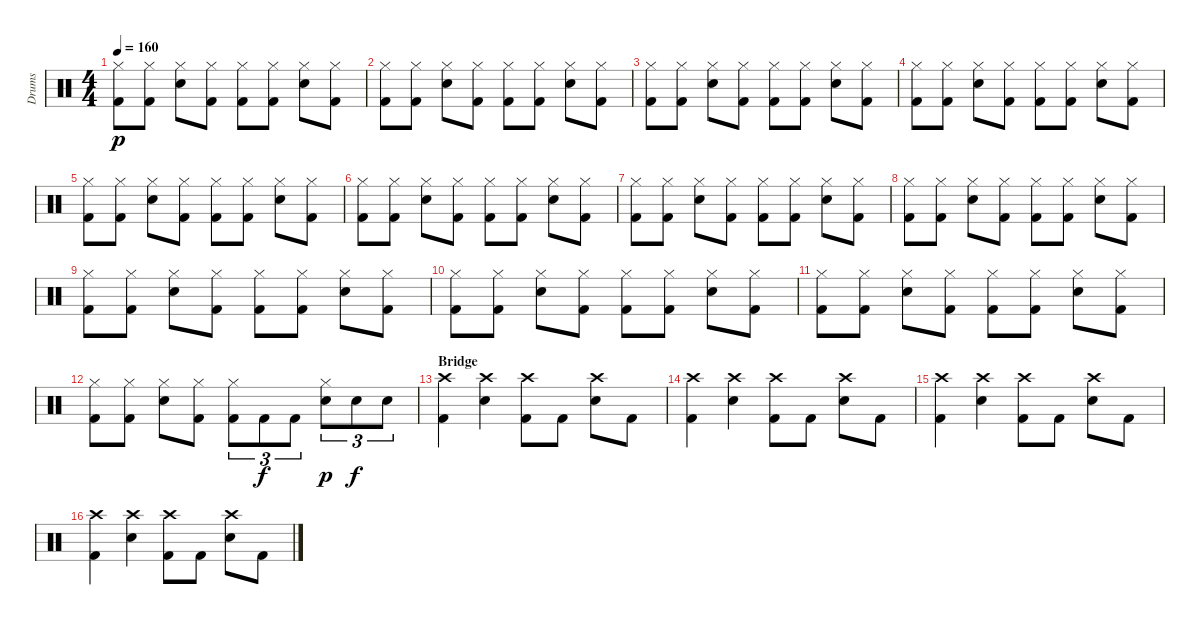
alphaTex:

\track ("Drums" "Drums") {instrument percussion}
\staff {score}
\articulation defaults
\ts (4 4)
\tempo 160
\clef neutral
\ks c
("Hi-Hat (closed)" "Kick (hit) 2").8{dy p} ("Hi-Hat (closed)" "Kick (hit) 2").8 ("Hi-Hat (closed)" "Snare (hit) 2").8 ("Hi-Hat (closed)" "Kick (hit) 2").8 ("Hi-Hat (closed)" "Kick (hit) 2").8 ("Hi-Hat (closed)" "Kick (hit) 2").8 ("Hi-Hat (closed)" "Snare (hit) 2").8 ("Hi-Hat (closed)" "Kick (hit) 2").8 |
("Hi-Hat (closed)" "Kick (hit) 2").8 ("Hi-Hat (closed)" "Kick (hit) 2").8 ("Hi-Hat (closed)" "Snare (hit) 2").8 ("Hi-Hat (closed)" "Kick (hit) 2").8 ("Hi-Hat (closed)" "Kick (hit) 2").8 ("Hi-Hat (closed)" "Kick (hit) 2").8 ("Hi-Hat (closed)" "Snare (hit) 2").8 ("Hi-Hat (closed)" "Kick (hit) 2").8 |
("Hi-Hat (closed)" "Kick (hit) 2").8 ("Hi-Hat (closed)" "Kick (hit) 2").8 ("Hi-Hat (closed)" "Snare (hit) 2").8 ("Hi-Hat (closed)" "Kick (hit) 2").8 ("Hi-Hat (closed)" "Kick (hit) 2").8 ("Hi-Hat (closed)" "Kick (hit) 2").8 ("Hi-Hat (closed)" "Snare (hit) 2").8 ("Hi-Hat (closed)" "Kick (hit) 2").8 |
("Hi-Hat (closed)" "Kick (hit) 2").8 ("Hi-Hat (closed)" "Kick (hit) 2").8 ("Hi-Hat (closed)" "Snare (hit) 2").8 ("Hi-Hat (closed)" "Kick (hit) 2").8 ("Hi-Hat (closed)" "Kick (hit) 2").8 ("Hi-Hat (closed)" "Kick (hit) 2").8 ("Hi-Hat (closed)" "Snare (hit) 2").8 ("Hi-Hat (closed)" "Kick (hit) 2").8 |
("Hi-Hat (closed)" "Kick (hit) 2").8 ("Hi-Hat (closed)" "Kick (hit) 2").8 ("Hi-Hat (closed)" "Snare (hit) 2").8 ("Hi-Hat (closed)" "Kick (hit) 2").8 ("Hi-Hat (closed)" "Kick (hit) 2").8 ("Hi-Hat (closed)" "Kick (hit) 2").8 ("Hi-Hat (closed)" "Snare (hit) 2").8 ("Hi-Hat (closed)" "Kick (hit) 2").8 |
("Hi-Hat (closed)" "Kick (hit) 2").8 ("Hi-Hat (closed)" "Kick (hit) 2").8 ("Hi-Hat (closed)" "Snare (hit) 2").8 ("Hi-Hat (closed)" "Kick (hit) 2").8 ("Hi-Hat (closed)" "Kick (hit) 2").8 ("Hi-Hat (closed)" "Kick (hit) 2").8 ("Hi-Hat (closed)" "Snare (hit) 2").8 ("Hi-Hat (closed)" "Kick (hit) 2").8 |
("Hi-Hat (closed)" "Kick (hit) 2").8 ("Hi-Hat (closed)" "Kick (hit) 2").8 ("Hi-Hat (closed)" "Snare (hit) 2").8 ("Hi-Hat (closed)" "Kick (hit) 2").8 ("Hi-Hat (closed)" "Kick (hit) 2").8 ("Hi-Hat (closed)" "Kick (hit) 2").8 ("Hi-Hat (closed)" "Snare (hit) 2").8 ("Hi-Hat (closed)" "Kick (hit) 2").8 |
("Hi-Hat (closed)" "Kick (hit) 2").8 ("Hi-Hat (closed)" "Kick (hit) 2").8 ("Hi-Hat (closed)" "Snare (hit) 2").8 ("Hi-Hat (closed)" "Kick (hit) 2").8 ("Hi-Hat (closed)" "Kick (hit) 2").8 ("Hi-Hat (closed)" "Kick (hit) 2").8 ("Hi-Hat (closed)" "Snare (hit) 2").8 ("Hi-Hat (closed)" "Kick (hit) 2").8 |
("Hi-Hat (closed)" "Kick (hit) 2").8 ("Hi-Hat (closed)" "Kick (hit) 2").8 ("Hi-Hat (closed)" "Snare (hit) 2").8 ("Hi-Hat (closed)" "Kick (hit) 2").8 ("Hi-Hat (closed)" "Kick (hit) 2").8 ("Hi-Hat (closed)" "Kick (hit) 2").8 ("Hi-Hat (closed)" "Snare (hit) 2").8 ("Hi-Hat (closed)" "Kick (hit) 2").8 |
("Hi-Hat (closed)" "Kick (hit) 2").8 ("Hi-Hat (closed)" "Kick (hit) 2").8 ("Hi-Hat (closed)" "Snare (hit) 2").8 ("Hi-Hat (closed)" "Kick (hit) 2").8 ("Hi-Hat (closed)" "Kick (hit) 2").8 ("Hi-Hat (closed)" "Kick (hit) 2").8 ("Hi-Hat (closed)" "Snare (hit) 2").8 ("Hi-Hat (closed)" "Kick (hit) 2").8 |
("Hi-Hat (closed)" "Kick (hit) 2").8 ("Hi-Hat (closed)" "Kick (hit) 2").8 ("Hi-Hat (closed)" "Snare (hit) 2").8 ("Hi-Hat (closed)" "Kick (hit) 2").8 ("Hi-Hat (closed)" "Kick (hit) 2").8 ("Hi-Hat (closed)" "Kick (hit) 2").8 ("Hi-Hat (closed)" "Snare (hit) 2").8 ("Hi-Hat (closed)" "Kick (hit) 2").8 |
("Hi-Hat (closed)" "Kick (hit) 2").8 ("Hi-Hat (closed)" "Kick (hit) 2").8 ("Hi-Hat (closed)" "Snare (hit) 2").8 ("Hi-Hat (closed)" "Kick (hit) 2").8 ("Hi-Hat (closed)" "Kick (hit) 2").8{tu (3 2)} "Kick (hit) 2".8{tu (3 2) dy f} "Kick (hit) 2".8{tu (3 2)} ("Hi-Hat (closed)" "Snare (hit) 2").8{tu (3 2) dy p} "Snare (hit) 2".8{tu (3 2) dy f} "Snare (hit) 2".8{tu (3 2)} |
\section ("" "Bridge")
("Crash high (hit)" "Kick (hit) 2").4 ("Crash high (hit)" "Snare (hit) 2").4 ("Crash high (hit)" "Kick (hit) 2").8 "Kick (hit) 2".8 ("Crash high (hit)" "Snare (hit) 2").8 "Kick (hit) 2".8 |
("Crash high (hit)" "Kick (hit) 2").4 ("Crash high (hit)" "Snare (hit) 2").4 ("Crash high (hit)" "Kick (hit) 2").8 "Kick (hit) 2".8 ("Crash high (hit)" "Snare (hit) 2").8 "Kick (hit) 2".8 |
("Crash high (hit)" "Kick (hit) 2").4 ("Crash high (hit)" "Snare (hit) 2").4 ("Crash high (hit)" "Kick (hit) 2").8 "Kick (hit) 2".8 ("Crash high (hit)" "Snare (hit) 2").8 "Kick (hit) 2".8 |
("Crash high (hit)" "Kick (hit) 2").4 ("Crash high (hit)" "Snare (hit) 2").4 ("Crash high (hit)" "Kick (hit) 2").8 "Kick (hit) 2".8 ("Crash high (hit)" "Snare (hit) 2").8 "Kick (hit) 2".8
